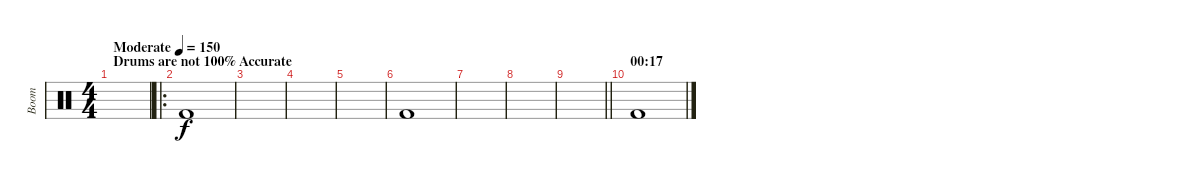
\track ("Boom" "Boom") {instrument percussion}
\staff {score}
\articulation defaults
\ts (4 4)
\section ("" "Drums are not 100% Accurate")
\tempo (150 "Moderate")
\clef neutral
\ks c
|
\ro "Kick (hit) 2".1
|
|
|
|
"Kick (hit) 2".1 |
|
|
\barLineRight lightlight
|
\section ("" "00:17")
"Kick (hit) 2".1
